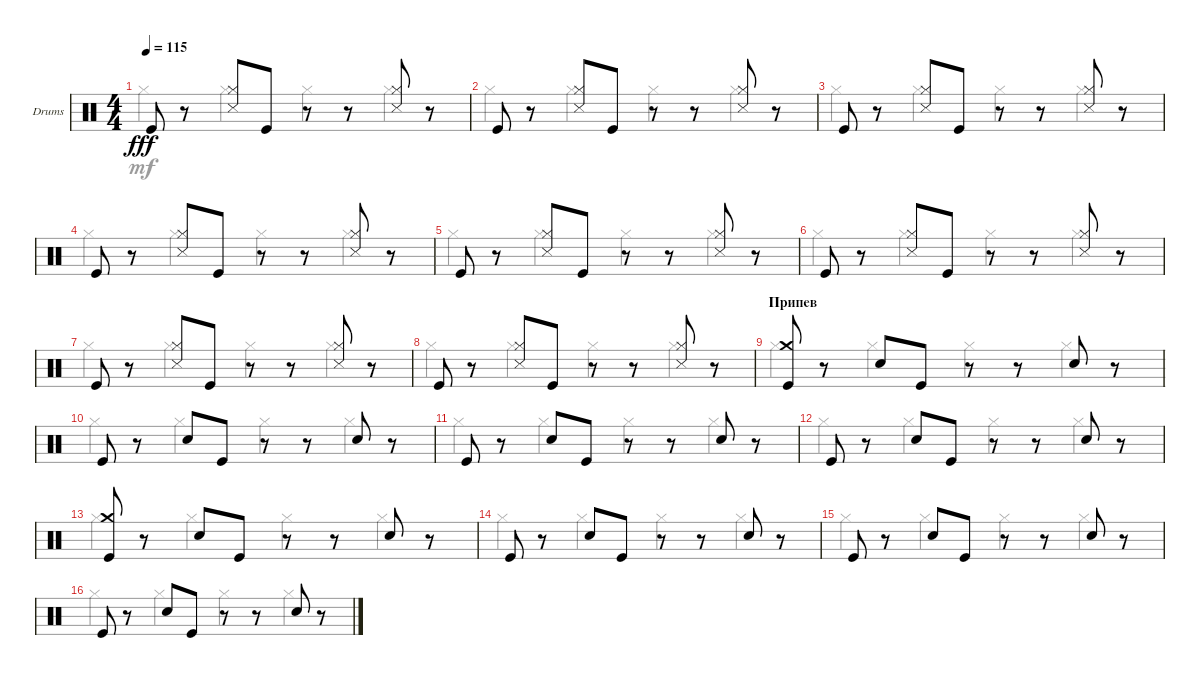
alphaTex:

\defaultSystemsLayout 4
\bracketExtendMode groupsimilarinstruments
\firstSystemTrackNameOrientation horizontal
\otherSystemsTrackNameOrientation horizontal
\track ("Миша \"Пчёлка\" Краев (Ударные)" "Drums") {instrument percussion}
\staff {score}
\articulation defaults
\voice
\ts (4 4)
\tempo 115
\clef neutral
\ks c "Kick (hit)".8{dy fff}
r.8 ("Snare (side stick) 3" "Hi-Hat (closed)").8 "Kick (hit)".8 r.8 r.8 ("Snare (side stick) 3" "Hi-Hat (closed)").8 r.8 |
"Kick (hit)".8 r.8 ("Hi-Hat (closed)" "Snare (side stick) 3").8 "Kick (hit)".8 r.8 r.8 ("Snare (side stick) 3" "Hi-Hat (closed)").8 r.8 |
"Kick (hit)".8 r.8 ("Hi-Hat (closed)" "Snare (side stick) 3").8 "Kick (hit)".8 r.8 r.8 ("Hi-Hat (closed)" "Snare (side stick) 3").8 r.8 |
"Kick (hit)".8 r.8 ("Hi-Hat (closed)" "Snare (side stick) 3").8 "Kick (hit)".8 r.8 r.8 ("Snare (side stick) 3" "Hi-Hat (closed)").8 r.8 |
"Kick (hit)".8 r.8 ("Hi-Hat (closed)" "Snare (side stick) 3").8 "Kick (hit)".8 r.8 r.8 ("Hi-Hat (closed)" "Snare (side stick) 3").8 r.8 |
"Kick (hit)".8 r.8 ("Snare (side stick) 3" "Hi-Hat (closed)").8 "Kick (hit)".8 r.8 r.8 ("Hi-Hat (closed)" "Snare (side stick) 3").8 r.8 |
"Kick (hit)".8 r.8 ("Hi-Hat (closed)" "Snare (side stick) 3").8 "Kick (hit)".8 r.8 r.8 ("Snare (side stick) 3" "Hi-Hat (closed)").8 r.8 |
"Kick (hit)".8 r.8 ("Hi-Hat (closed)" "Snare (side stick) 3").8 "Kick (hit)".8 r.8 r.8 ("Hi-Hat (closed)" "Snare (side stick) 3").8 r.8 |
\section ("" "Припев")
("Kick (hit)" "Crash medium (hit)").8 r.8 "Snare (hit) 2".8 "Kick (hit)".8 r.8 r.8 "Snare (hit) 2".8 r.8 |
"Kick (hit)".8 r.8 "Snare (hit) 2".8 "Kick (hit)".8 r.8 r.8 "Snare (hit) 2".8 r.8 |
"Kick (hit)".8 r.8 "Snare (hit) 2".8 "Kick (hit)".8 r.8 r.8 "Snare (hit) 2".8 r.8 |
"Kick (hit)".8 r.8 "Snare (hit) 2".8 "Kick (hit)".8 r.8 r.8 "Snare (hit) 2".8 r.8 |
("Kick (hit)" "Crash medium (hit)").8 r.8 "Snare (hit) 2".8 "Kick (hit)".8 r.8 r.8 "Snare (hit) 2".8 r.8 |
"Kick (hit)".8 r.8 "Snare (hit) 2".8 "Kick (hit)".8 r.8 r.8 "Snare (hit) 2".8 r.8 |
"Kick (hit)".8 r.8 "Snare (hit) 2".8 "Kick (hit)".8 r.8 r.8 "Snare (hit) 2".8 r.8 |
"Kick (hit)".8 r.8 "Snare (hit) 2".8 "Kick (hit)".8 r.8 r.8 "Snare (hit) 2".8 r.8
\voice
\clef neutral
\ottava regular
\simile none
\ks c "Hi-Hat (closed)".4{dy mf} "Hi-Hat (closed)".4 "Hi-Hat (closed)".4 "Hi-Hat (closed)".4
|
"Hi-Hat (closed)".4 "Hi-Hat (closed)".4 "Hi-Hat (closed)".4 "Hi-Hat (closed)".4 |
"Hi-Hat (closed)".4 "Hi-Hat (closed)".4 "Hi-Hat (closed)".4 "Hi-Hat (closed)".4 |
"Hi-Hat (closed)".4 "Hi-Hat (closed)".4 "Hi-Hat (closed)".4 "Hi-Hat (closed)".4 |
"Hi-Hat (closed)".4 "Hi-Hat (closed)".4 "Hi-Hat (closed)".4 "Hi-Hat (closed)".4 |
"Hi-Hat (closed)".4 "Hi-Hat (closed)".4 "Hi-Hat (closed)".4 "Hi-Hat (closed)".4 |
"Hi-Hat (closed)".4 "Hi-Hat (closed)".4 "Hi-Hat (closed)".4 "Hi-Hat (closed)".4 |
"Hi-Hat (closed)".4 "Hi-Hat (closed)".4 "Hi-Hat (closed)".4 "Hi-Hat (closed)".4 |
"Hi-Hat (closed)".4 "Hi-Hat (closed)".4 "Hi-Hat (closed)".4 "Hi-Hat (closed)".4 |
"Hi-Hat (closed)".4 "Hi-Hat (closed)".4 "Hi-Hat (closed)".4 "Hi-Hat (closed)".4 |
"Hi-Hat (closed)".4 "Hi-Hat (closed)".4 "Hi-Hat (closed)".4 "Hi-Hat (closed)".4 |
"Hi-Hat (closed)".4 "Hi-Hat (closed)".4 "Hi-Hat (closed)".4 "Hi-Hat (closed)".4 |
"Hi-Hat (closed)".4 "Hi-Hat (closed)".4 "Hi-Hat (closed)".4 "Hi-Hat (closed)".4 |
"Hi-Hat (closed)".4 "Hi-Hat (closed)".4 "Hi-Hat (closed)".4 "Hi-Hat (closed)".4 |
"Hi-Hat (closed)".4 "Hi-Hat (closed)".4 "Hi-Hat (closed)".4 "Hi-Hat (closed)".4 |
"Hi-Hat (closed)".4 "Hi-Hat (closed)".4 "Hi-Hat (closed)".4 "Hi-Hat (closed)".4
